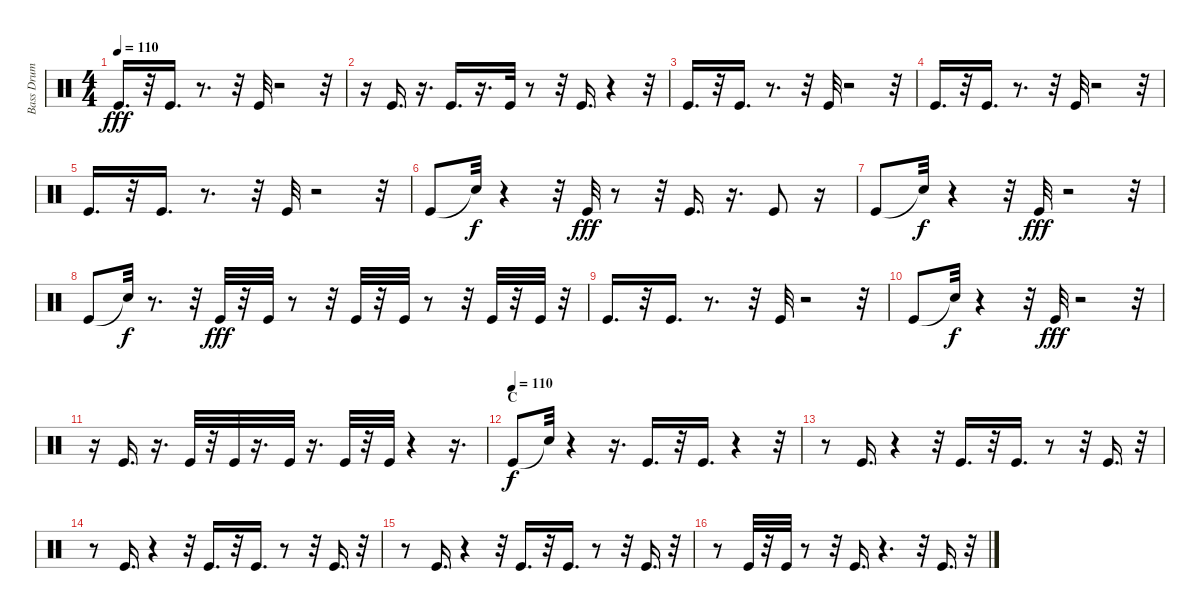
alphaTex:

\track ("Bass Drum" "Bass Drum") {instrument percussion}
\staff {score}
\articulation defaults
\ts (4 4)
\tempo 110
\clef neutral
\ks c "Kick (hit)".16{d dy fff}
r.32 "Kick (hit)".16{d} r.8{d} r.32 "Kick (hit)".32 r.2 r.32 |
r.16 "Kick (hit)".16{d} r.16{d} "Kick (hit)".16{d} r.16{d} "Kick (hit)".32 r.8 r.32 "Kick (hit)".16{d} r.4 r.32 |
"Kick (hit)".16{d} r.32 "Kick (hit)".16{d} r.8{d} r.32 "Kick (hit)".32 r.2 r.32 |
"Kick (hit)".16{d} r.32 "Kick (hit)".16{d} r.8{d} r.32 "Kick (hit)".32 r.2 r.32 |
"Kick (hit)".16{d} r.32 "Kick (hit)".16{d} r.8{d} r.32 "Kick (hit)".32 r.2 r.32 |
"Kick (hit)".8 "Snare (hit)"{t}.32{dy f} r.4 r.32 "Kick (hit)".32{dy fff} r.8 r.32 "Kick (hit)".16{d} r.16{d} "Kick (hit)".8 r.16 |
"Kick (hit)".8 "Snare (hit)"{t}.32{dy f} r.4 r.32 "Kick (hit)".32{dy fff} r.2 r.32 |
"Kick (hit)".8 "Snare (hit)"{t}.32{dy f} r.8{d} r.32 "Kick (hit)".32{dy fff} r.32 "Kick (hit)".32 r.8 r.32 "Kick (hit)".32 r.32 "Kick (hit)".32 r.8 r.32 "Kick (hit)".32 r.32 "Kick (hit)".32 r.32 |
"Kick (hit)".16{d} r.32 "Kick (hit)".16{d} r.8{d} r.32 "Kick (hit)".32 r.2 r.32 |
"Kick (hit)".8 "Snare (hit)"{t}.32{dy f} r.4 r.32 "Kick (hit)".32{dy fff} r.2 r.32 |
r.16 "Kick (hit)".16{d} r.16{d} "Kick (hit)".32 r.32 "Kick (hit)".32 r.16{d} "Kick (hit)".32 r.16{d} "Kick (hit)".32 r.32 "Kick (hit)".32 r.4 r.16{d} |
\section ("" "C")
\tempo (110)
"Kick (hit)".8{dy f} "Snare (hit)"{t}.32 r.4 r.16{d} "Kick (hit)".16{d} r.32 "Kick (hit)".16{d} r.4 r.32 |
r.8 "Kick (hit)".16{d} r.4 r.32 "Kick (hit)".16{d} r.32 "Kick (hit)".16{d} r.8 r.32 "Kick (hit)".16{d} r.32 |
r.8 "Kick (hit)".16{d} r.4 r.32 "Kick (hit)".16{d} r.32 "Kick (hit)".16{d} r.8 r.32 "Kick (hit)".16{d} r.32 |
r.8 "Kick (hit)".16{d} r.4 r.32 "Kick (hit)".16{d} r.32 "Kick (hit)".16{d} r.8 r.32 "Kick (hit)".16{d} r.32 |
r.8 "Kick (hit)".32 r.32 "Kick (hit)".32 r.8 r.32 "Kick (hit)".16{d} r.4{d} r.32 "Kick (hit)".16{d} r.32
